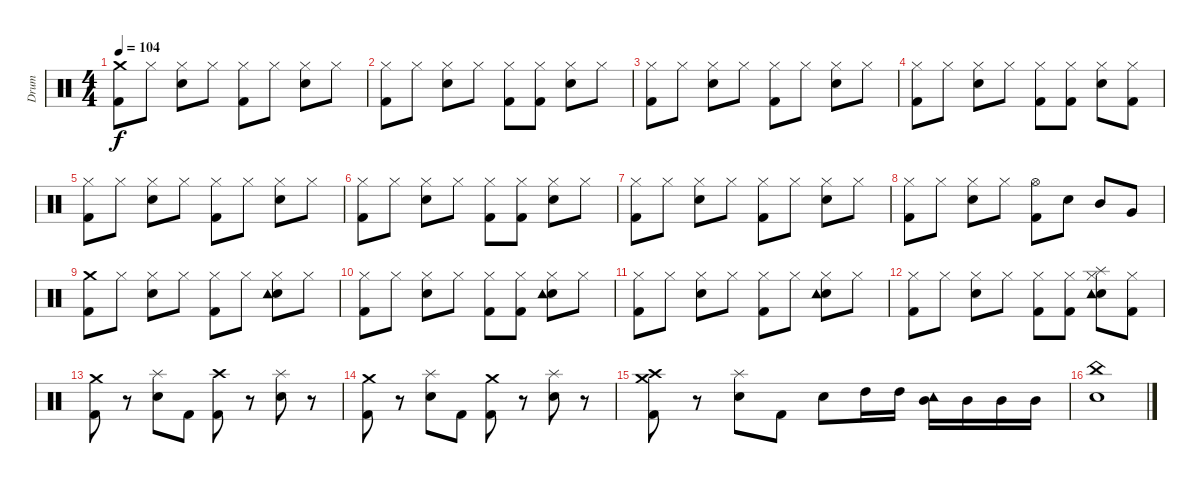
\track ("Drum" "Drum") {instrument percussion}
\staff {score}
\articulation defaults
\ts (4 4)
\tempo 104
\clef neutral
\ks c
("Crash medium (hit)" "Kick (hit) 2").8{dy f} "Hi-Hat (closed)".8 ("Snare (hit) 2" "Hi-Hat (closed)").8 "Hi-Hat (closed)".8 ("Hi-Hat (closed)" "Kick (hit) 2").8 "Hi-Hat (closed)".8 ("Snare (hit) 2" "Hi-Hat (closed)").8 "Hi-Hat (closed)".8 |
("Hi-Hat (closed)" "Kick (hit) 2").8 "Hi-Hat (closed)".8 ("Snare (hit) 2" "Hi-Hat (closed)").8 "Hi-Hat (closed)".8 ("Hi-Hat (closed)" "Kick (hit) 2").8 ("Hi-Hat (closed)" "Kick (hit) 2").8 ("Snare (hit) 2" "Hi-Hat (closed)").8 "Hi-Hat (closed)".8 |
("Hi-Hat (closed)" "Kick (hit) 2").8 "Hi-Hat (closed)".8 ("Snare (hit) 2" "Hi-Hat (closed)").8 "Hi-Hat (closed)".8 ("Hi-Hat (closed)" "Kick (hit) 2").8 "Hi-Hat (closed)".8 ("Snare (hit) 2" "Hi-Hat (closed)").8 "Hi-Hat (closed)".8 |
("Hi-Hat (closed)" "Kick (hit) 2").8 "Hi-Hat (closed)".8 ("Snare (hit) 2" "Hi-Hat (closed)").8 "Hi-Hat (closed)".8 ("Hi-Hat (closed)" "Kick (hit) 2").8 ("Hi-Hat (closed)" "Kick (hit) 2").8 ("Snare (hit) 2" "Hi-Hat (closed)").8 ("Hi-Hat (closed)" "Kick (hit) 2").8 |
("Hi-Hat (closed)" "Kick (hit) 2").8 "Hi-Hat (closed)".8 ("Snare (hit) 2" "Hi-Hat (closed)").8 "Hi-Hat (closed)".8 ("Hi-Hat (closed)" "Kick (hit) 2").8 "Hi-Hat (closed)".8 ("Snare (hit) 2" "Hi-Hat (closed)").8 "Hi-Hat (closed)".8 |
("Hi-Hat (closed)" "Kick (hit) 2").8 "Hi-Hat (closed)".8 ("Snare (hit) 2" "Hi-Hat (closed)").8 "Hi-Hat (closed)".8 ("Hi-Hat (closed)" "Kick (hit) 2").8 ("Hi-Hat (closed)" "Kick (hit) 2").8 ("Snare (hit) 2" "Hi-Hat (closed)").8 "Hi-Hat (closed)".8 |
("Hi-Hat (closed)" "Kick (hit) 2").8 "Hi-Hat (closed)".8 ("Snare (hit) 2" "Hi-Hat (closed)").8 "Hi-Hat (closed)".8 ("Hi-Hat (closed)" "Kick (hit) 2").8 "Hi-Hat (closed)".8 ("Snare (hit) 2" "Hi-Hat (closed)").8 "Hi-Hat (closed)".8 |
("Hi-Hat (closed)" "Kick (hit) 2").8 "Hi-Hat (closed)".8 ("Snare (hit) 2" "Hi-Hat (closed)").8 "Hi-Hat (closed)".8 ("Hi-Hat (open)" "Kick (hit) 2").8 "Snare (hit) 2".8 "Mid Tom (hit)".8 "Very Low Tom (hit)".8 |
("Crash medium (hit)" "Kick (hit) 2").8 "Hi-Hat (closed)".8 ("Snare (hit) 2" "Hi-Hat (closed)").8 "Hi-Hat (closed)".8 ("Hi-Hat (closed)" "Kick (hit) 2").8 "Hi-Hat (closed)".8 ("Snare (hit) 2" "Hi-Hat (closed)" "Tambourine (hit)").8 "Hi-Hat (closed)".8 |
("Hi-Hat (closed)" "Kick (hit) 2").8 "Hi-Hat (closed)".8 ("Snare (hit) 2" "Hi-Hat (closed)").8 "Hi-Hat (closed)".8 ("Hi-Hat (closed)" "Kick (hit) 2").8 ("Hi-Hat (closed)" "Kick (hit) 2").8 ("Snare (hit) 2" "Hi-Hat (closed)" "Tambourine (hit)").8 "Hi-Hat (closed)".8 |
("Hi-Hat (closed)" "Kick (hit) 2").8 "Hi-Hat (closed)".8 ("Snare (hit) 2" "Hi-Hat (closed)").8 "Hi-Hat (closed)".8 ("Hi-Hat (closed)" "Kick (hit) 2").8 "Hi-Hat (closed)".8 ("Snare (hit) 2" "Hi-Hat (closed)" "Tambourine (hit)").8 "Hi-Hat (closed)".8 |
("Hi-Hat (closed)" "Kick (hit) 2").8 "Hi-Hat (closed)".8 ("Snare (hit) 2" "Hi-Hat (closed)").8 "Hi-Hat (closed)".8 ("Hi-Hat (closed)" "Kick (hit) 2").8 ("Hi-Hat (closed)" "Kick (hit) 2").8 ("Snare (hit) 2" "Hi-Hat (closed)" "Tambourine (hit)" "Splash (hit)").8 ("Hi-Hat (closed)" "Kick (hit) 2").8 |
("Crash medium (hit)" "Kick (hit) 2").8 r.8 ("Snare (hit) 2" "Splash (hit)").8 "Kick (hit) 2".8 ("Crash high (hit)" "Kick (hit) 2").8 r.8 ("Snare (hit) 2" "Splash (hit)").8 r.8 |
("Crash medium (hit)" "Kick (hit) 2").8 r.8 ("Snare (hit) 2" "Splash (hit)").8 "Kick (hit) 2".8 ("Crash medium (hit)" "Kick (hit) 2").8 r.8 ("Snare (hit) 2" "Splash (hit)").8 r.8 |
("Crash medium (hit)" "Crash high (hit)" "Kick (hit) 2").8 r.8 ("Snare (hit) 2" "Splash (hit)").8 "Kick (hit) 2".8 "Snare (hit) 2".8 "High Tom (hit)".16 "High Tom (hit)".16 ("Mid Tom (hit)" "Tambourine (hit)").16 "Mid Tom (hit)".16 "Mid Tom (hit)".16 "Mid Tom (hit)".16 |
("Snare (hit) 2" "China (hit)").1
